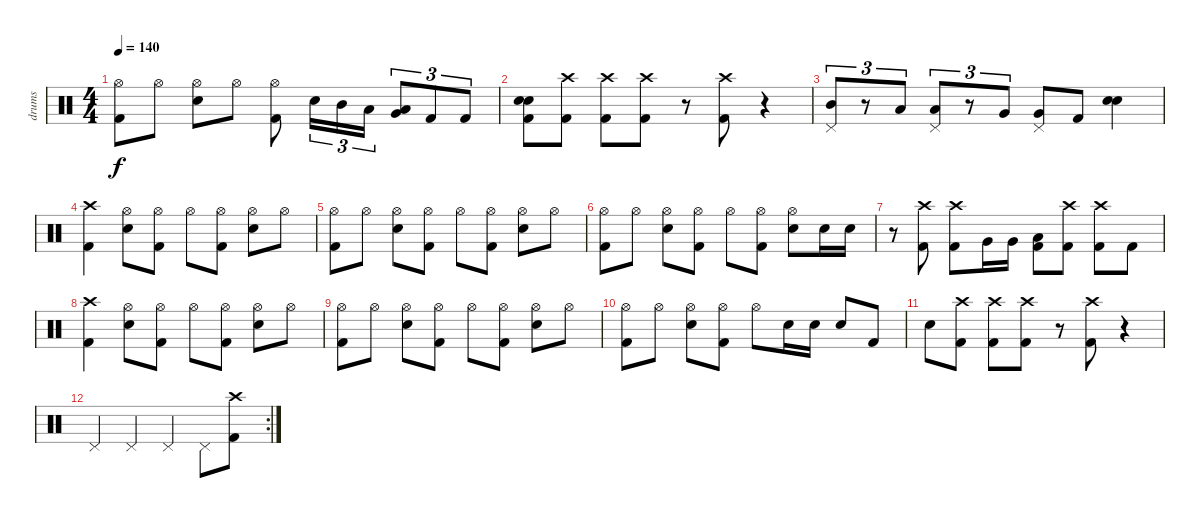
\track ("drums" "drums") {instrument percussion}
\staff {score}
\articulation defaults
\ts (4 4)
\tempo 140
\clef neutral
\ks c
("Hi-Hat (open)" "Kick (hit) 2").8{dy f} "Hi-Hat (open)".8 ("Hi-Hat (open)" "Electric Snare (hit)").8 "Hi-Hat (open)".8 ("Hi-Hat (open)" "Kick (hit) 2").8 "Electric Snare (hit)".16{tu (3 2)} "Mid Tom (hit)".16{tu (3 2)} "Low Tom (hit)".16{tu (3 2)} ("Very Low Tom (hit)" "Low Floor Tom (hit)").8{tu (3 2)} "Kick (hit) 2".8{tu (3 2)} "Kick (hit) 2".8{tu (3 2)} |
("Electric Snare (hit)" "Electric Snare (hit)" "Kick (hit) 2").8 ("Crash high (hit)" "Kick (hit) 2").8 ("Crash high (hit)" "Kick (hit) 2").8 ("Crash high (hit)" "Kick (hit) 2").8 r.8 ("Crash high (hit)" "Kick (hit) 2").8 r.4 |
("Pedal Hi-Hat (hit)" "Mid Tom (hit)").8{tu (3 2)} r.8{tu (3 2)} "Low Tom (hit)".8{tu (3 2)} ("Pedal Hi-Hat (hit)" "Low Tom (hit)").8{tu (3 2)} r.8{tu (3 2)} "Very Low Tom (hit)".8{tu (3 2)} ("Pedal Hi-Hat (hit)" "Very Low Tom (hit)").8 "Kick (hit) 2".8 ("Electric Snare (hit)" "Electric Snare (hit)").4 |
("Crash high (hit)" "Kick (hit) 2").4 ("Hi-Hat (open)" "Electric Snare (hit)").8 ("Hi-Hat (open)" "Kick (hit) 2").8 "Hi-Hat (open)".8 ("Hi-Hat (open)" "Kick (hit) 2").8 ("Hi-Hat (open)" "Electric Snare (hit)").8 "Hi-Hat (open)".8 |
("Hi-Hat (open)" "Kick (hit) 2").8 "Hi-Hat (open)".8 ("Hi-Hat (open)" "Electric Snare (hit)").8 ("Hi-Hat (open)" "Kick (hit) 2").8 "Hi-Hat (open)".8 ("Hi-Hat (open)" "Kick (hit) 2").8 ("Hi-Hat (open)" "Electric Snare (hit)").8 "Hi-Hat (open)".8 |
("Hi-Hat (open)" "Kick (hit) 2").8 "Hi-Hat (open)".8 ("Hi-Hat (open)" "Electric Snare (hit)").8 ("Hi-Hat (open)" "Kick (hit) 2").8 "Hi-Hat (open)".8 ("Hi-Hat (open)" "Kick (hit) 2").8 ("Hi-Hat (open)" "Electric Snare (hit)").8 "Electric Snare (hit)".16 "Electric Snare (hit)".16 |
r.8 ("Crash high (hit)" "Kick (hit) 2").8 ("Crash high (hit)" "Kick (hit) 2").8 "Very Low Tom (hit)".16 "Very Low Tom (hit)".16 ("Low Floor Tom (hit)" "Kick (hit) 2").8 ("Crash high (hit)" "Kick (hit) 2").8 ("Crash high (hit)" "Kick (hit) 2").8 "Kick (hit) 2".8 |
("Crash high (hit)" "Kick (hit) 2").4 ("Hi-Hat (open)" "Electric Snare (hit)").8 ("Hi-Hat (open)" "Kick (hit) 2").8 "Hi-Hat (open)".8 ("Hi-Hat (open)" "Kick (hit) 2").8 ("Hi-Hat (open)" "Electric Snare (hit)").8 "Hi-Hat (open)".8 |
("Hi-Hat (open)" "Kick (hit) 2").8 "Hi-Hat (open)".8 ("Hi-Hat (open)" "Electric Snare (hit)").8 ("Hi-Hat (open)" "Kick (hit) 2").8 "Hi-Hat (open)".8 ("Hi-Hat (open)" "Kick (hit) 2").8 ("Hi-Hat (open)" "Electric Snare (hit)").8 "Hi-Hat (open)".8 |
("Hi-Hat (open)" "Kick (hit) 2").8 "Hi-Hat (open)".8 ("Hi-Hat (open)" "Electric Snare (hit)").8 ("Hi-Hat (open)" "Kick (hit) 2").8 "Hi-Hat (open)".8 "Electric Snare (hit)".16 "Electric Snare (hit)".16 "Electric Snare (hit)".8 "Kick (hit) 2".8 |
"Electric Snare (hit)".8 ("Crash high (hit)" "Kick (hit) 2").8 ("Crash high (hit)" "Kick (hit) 2").8 ("Crash high (hit)" "Kick (hit) 2").8 r.8 ("Crash high (hit)" "Kick (hit) 2").8 r.4 |
\rc 2 "Pedal Hi-Hat (hit)".4 "Pedal Hi-Hat (hit)".4 "Pedal Hi-Hat (hit)".4 "Pedal Hi-Hat (hit)".8
("Crash high (hit)" "Kick (hit) 2").8
